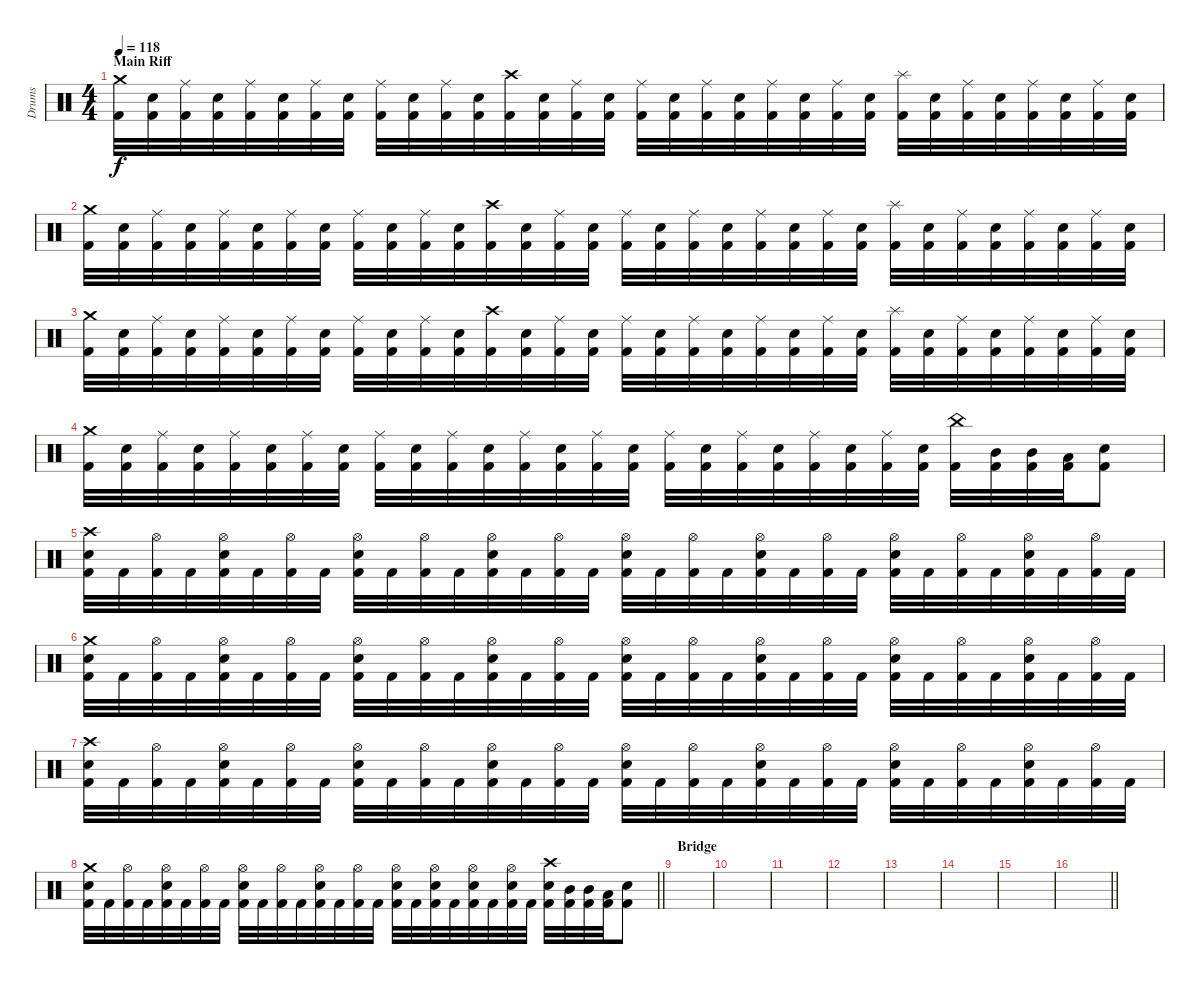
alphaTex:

\track ("Drums" "Drums") {instrument percussion}
\staff {score}
\articulation defaults
\ts (4 4)
\section ("" "Main Riff")
\tempo 118
\clef neutral
\ks c
("Crash medium (hit)" "Kick (hit) 2").32{dy f} ("Electric Snare (hit)" "Kick (hit) 2").32 ("Ride (middle)" "Kick (hit) 2").32 ("Electric Snare (hit)" "Kick (hit) 2").32 ("Ride (middle)" "Kick (hit) 2").32 ("Electric Snare (hit)" "Kick (hit) 2").32 ("Ride (middle)" "Kick (hit) 2").32 ("Electric Snare (hit)" "Kick (hit) 2").32 ("Ride (middle)" "Kick (hit) 2").32 ("Electric Snare (hit)" "Kick (hit) 2").32 ("Ride (middle)" "Kick (hit) 2").32 ("Electric Snare (hit)" "Kick (hit) 2").32 ("Crash high (hit)" "Kick (hit) 2").32 ("Electric Snare (hit)" "Kick (hit) 2").32 ("Ride (middle)" "Kick (hit) 2").32 ("Electric Snare (hit)" "Kick (hit) 2").32 ("Ride (middle)" "Kick (hit) 2").32 ("Electric Snare (hit)" "Kick (hit) 2").32 ("Ride (middle)" "Kick (hit) 2").32 ("Electric Snare (hit)" "Kick (hit) 2").32 ("Ride (middle)" "Kick (hit) 2").32 ("Electric Snare (hit)" "Kick (hit) 2").32 ("Ride (middle)" "Kick (hit) 2").32 ("Electric Snare (hit)" "Kick (hit) 2").32 ("Splash (hit)" "Kick (hit) 2").32 ("Electric Snare (hit)" "Kick (hit) 2").32 ("Ride (middle)" "Kick (hit) 2").32 ("Electric Snare (hit)" "Kick (hit) 2").32 ("Ride (middle)" "Kick (hit) 2").32 ("Electric Snare (hit)" "Kick (hit) 2").32 ("Ride (middle)" "Kick (hit) 2").32 ("Electric Snare (hit)" "Kick (hit) 2").32 |
("Crash medium (hit)" "Kick (hit) 2").32 ("Electric Snare (hit)" "Kick (hit) 2").32 ("Ride (middle)" "Kick (hit) 2").32 ("Electric Snare (hit)" "Kick (hit) 2").32 ("Ride (middle)" "Kick (hit) 2").32 ("Electric Snare (hit)" "Kick (hit) 2").32 ("Ride (middle)" "Kick (hit) 2").32 ("Electric Snare (hit)" "Kick (hit) 2").32 ("Ride (middle)" "Kick (hit) 2").32 ("Electric Snare (hit)" "Kick (hit) 2").32 ("Ride (middle)" "Kick (hit) 2").32 ("Electric Snare (hit)" "Kick (hit) 2").32 ("Crash high (hit)" "Kick (hit) 2").32 ("Electric Snare (hit)" "Kick (hit) 2").32 ("Ride (middle)" "Kick (hit) 2").32 ("Electric Snare (hit)" "Kick (hit) 2").32 ("Ride (middle)" "Kick (hit) 2").32 ("Electric Snare (hit)" "Kick (hit) 2").32 ("Ride (middle)" "Kick (hit) 2").32 ("Electric Snare (hit)" "Kick (hit) 2").32 ("Ride (middle)" "Kick (hit) 2").32 ("Electric Snare (hit)" "Kick (hit) 2").32 ("Ride (middle)" "Kick (hit) 2").32 ("Electric Snare (hit)" "Kick (hit) 2").32 ("Splash (hit)" "Kick (hit) 2").32 ("Electric Snare (hit)" "Kick (hit) 2").32 ("Ride (middle)" "Kick (hit) 2").32 ("Electric Snare (hit)" "Kick (hit) 2").32 ("Ride (middle)" "Kick (hit) 2").32 ("Electric Snare (hit)" "Kick (hit) 2").32 ("Ride (middle)" "Kick (hit) 2").32 ("Electric Snare (hit)" "Kick (hit) 2").32 |
("Crash medium (hit)" "Kick (hit) 2").32 ("Electric Snare (hit)" "Kick (hit) 2").32 ("Ride (middle)" "Kick (hit) 2").32 ("Electric Snare (hit)" "Kick (hit) 2").32 ("Ride (middle)" "Kick (hit) 2").32 ("Electric Snare (hit)" "Kick (hit) 2").32 ("Ride (middle)" "Kick (hit) 2").32 ("Electric Snare (hit)" "Kick (hit) 2").32 ("Ride (middle)" "Kick (hit) 2").32 ("Electric Snare (hit)" "Kick (hit) 2").32 ("Ride (middle)" "Kick (hit) 2").32 ("Electric Snare (hit)" "Kick (hit) 2").32 ("Crash high (hit)" "Kick (hit) 2").32 ("Electric Snare (hit)" "Kick (hit) 2").32 ("Ride (middle)" "Kick (hit) 2").32 ("Electric Snare (hit)" "Kick (hit) 2").32 ("Ride (middle)" "Kick (hit) 2").32 ("Electric Snare (hit)" "Kick (hit) 2").32 ("Ride (middle)" "Kick (hit) 2").32 ("Electric Snare (hit)" "Kick (hit) 2").32 ("Ride (middle)" "Kick (hit) 2").32 ("Electric Snare (hit)" "Kick (hit) 2").32 ("Ride (middle)" "Kick (hit) 2").32 ("Electric Snare (hit)" "Kick (hit) 2").32 ("Splash (hit)" "Kick (hit) 2").32 ("Electric Snare (hit)" "Kick (hit) 2").32 ("Ride (middle)" "Kick (hit) 2").32 ("Electric Snare (hit)" "Kick (hit) 2").32 ("Ride (middle)" "Kick (hit) 2").32 ("Electric Snare (hit)" "Kick (hit) 2").32 ("Ride (middle)" "Kick (hit) 2").32 ("Electric Snare (hit)" "Kick (hit) 2").32 |
("Crash medium (hit)" "Kick (hit) 2").32 ("Electric Snare (hit)" "Kick (hit) 2").32 ("Ride (middle)" "Kick (hit) 2").32 ("Electric Snare (hit)" "Kick (hit) 2").32 ("Ride (middle)" "Kick (hit) 2").32 ("Electric Snare (hit)" "Kick (hit) 2").32 ("Ride (middle)" "Kick (hit) 2").32 ("Electric Snare (hit)" "Kick (hit) 2").32 ("Ride (middle)" "Kick (hit) 2").32 ("Electric Snare (hit)" "Kick (hit) 2").32 ("Ride (middle)" "Kick (hit) 2").32 ("Electric Snare (hit)" "Kick (hit) 2").32 ("Ride (middle)" "Kick (hit) 2").32 ("Electric Snare (hit)" "Kick (hit) 2").32 ("Ride (middle)" "Kick (hit) 2").32 ("Electric Snare (hit)" "Kick (hit) 2").32 ("Ride (middle)" "Kick (hit) 2").32 ("Electric Snare (hit)" "Kick (hit) 2").32 ("Ride (middle)" "Kick (hit) 2").32 ("Electric Snare (hit)" "Kick (hit) 2").32 ("Ride (middle)" "Kick (hit) 2").32 ("Electric Snare (hit)" "Kick (hit) 2").32 ("Ride (middle)" "Kick (hit) 2").32 ("Electric Snare (hit)" "Kick (hit) 2").32 ("China (hit)" "Kick (hit) 2").32 ("Mid Tom (hit)" "Kick (hit) 2").32 ("Mid Tom (hit)" "Kick (hit) 2").32 ("Low Tom (hit)" "Kick (hit) 2").32 ("Electric Snare (hit)" "Kick (hit) 2").8 |
("Crash high (hit)" "Electric Snare (hit)" "Kick (hit) 2").32 "Kick (hit) 2".32 ("Hi-Hat (open)" "Kick (hit) 2").32 "Kick (hit) 2".32 ("Hi-Hat (open)" "Electric Snare (hit)" "Kick (hit) 2").32 "Kick (hit) 2".32 ("Hi-Hat (open)" "Kick (hit) 2").32 "Kick (hit) 2".32 ("Hi-Hat (open)" "Electric Snare (hit)" "Kick (hit) 2").32 "Kick (hit) 2".32 ("Hi-Hat (open)" "Kick (hit) 2").32 "Kick (hit) 2".32 ("Hi-Hat (open)" "Electric Snare (hit)" "Kick (hit) 2").32 "Kick (hit) 2".32 ("Hi-Hat (open)" "Kick (hit) 2").32 "Kick (hit) 2".32 ("Hi-Hat (open)" "Electric Snare (hit)" "Kick (hit) 2").32 "Kick (hit) 2".32 ("Hi-Hat (open)" "Kick (hit) 2").32 "Kick (hit) 2".32 ("Hi-Hat (open)" "Electric Snare (hit)" "Kick (hit) 2").32 "Kick (hit) 2".32 ("Hi-Hat (open)" "Kick (hit) 2").32 "Kick (hit) 2".32 ("Hi-Hat (open)" "Electric Snare (hit)" "Kick (hit) 2").32 "Kick (hit) 2".32 ("Hi-Hat (open)" "Kick (hit) 2").32 "Kick (hit) 2".32 ("Hi-Hat (open)" "Electric Snare (hit)" "Kick (hit) 2").32 "Kick (hit) 2".32 ("Hi-Hat (open)" "Kick (hit) 2").32 "Kick (hit) 2".32 |
("Crash medium (hit)" "Electric Snare (hit)" "Kick (hit) 2").32 "Kick (hit) 2".32 ("Hi-Hat (open)" "Kick (hit) 2").32 "Kick (hit) 2".32 ("Hi-Hat (open)" "Electric Snare (hit)" "Kick (hit) 2").32 "Kick (hit) 2".32 ("Hi-Hat (open)" "Kick (hit) 2").32 "Kick (hit) 2".32 ("Hi-Hat (open)" "Electric Snare (hit)" "Kick (hit) 2").32 "Kick (hit) 2".32 ("Hi-Hat (open)" "Kick (hit) 2").32 "Kick (hit) 2".32 ("Hi-Hat (open)" "Electric Snare (hit)" "Kick (hit) 2").32 "Kick (hit) 2".32 ("Hi-Hat (open)" "Kick (hit) 2").32 "Kick (hit) 2".32 ("Hi-Hat (open)" "Electric Snare (hit)" "Kick (hit) 2").32 "Kick (hit) 2".32 ("Hi-Hat (open)" "Kick (hit) 2").32 "Kick (hit) 2".32 ("Hi-Hat (open)" "Electric Snare (hit)" "Kick (hit) 2").32 "Kick (hit) 2".32 ("Hi-Hat (open)" "Kick (hit) 2").32 "Kick (hit) 2".32 ("Hi-Hat (open)" "Electric Snare (hit)" "Kick (hit) 2").32 "Kick (hit) 2".32 ("Hi-Hat (open)" "Kick (hit) 2").32 "Kick (hit) 2".32 ("Hi-Hat (open)" "Electric Snare (hit)" "Kick (hit) 2").32 "Kick (hit) 2".32 ("Hi-Hat (open)" "Kick (hit) 2").32 "Kick (hit) 2".32 |
("Crash high (hit)" "Electric Snare (hit)" "Kick (hit) 2").32 "Kick (hit) 2".32 ("Hi-Hat (open)" "Kick (hit) 2").32 "Kick (hit) 2".32 ("Hi-Hat (open)" "Electric Snare (hit)" "Kick (hit) 2").32 "Kick (hit) 2".32 ("Hi-Hat (open)" "Kick (hit) 2").32 "Kick (hit) 2".32 ("Hi-Hat (open)" "Electric Snare (hit)" "Kick (hit) 2").32 "Kick (hit) 2".32 ("Hi-Hat (open)" "Kick (hit) 2").32 "Kick (hit) 2".32 ("Hi-Hat (open)" "Electric Snare (hit)" "Kick (hit) 2").32 "Kick (hit) 2".32 ("Hi-Hat (open)" "Kick (hit) 2").32 "Kick (hit) 2".32 ("Hi-Hat (open)" "Electric Snare (hit)" "Kick (hit) 2").32 "Kick (hit) 2".32 ("Hi-Hat (open)" "Kick (hit) 2").32 "Kick (hit) 2".32 ("Hi-Hat (open)" "Electric Snare (hit)" "Kick (hit) 2").32 "Kick (hit) 2".32 ("Hi-Hat (open)" "Kick (hit) 2").32 "Kick (hit) 2".32 ("Hi-Hat (open)" "Electric Snare (hit)" "Kick (hit) 2").32 "Kick (hit) 2".32 ("Hi-Hat (open)" "Kick (hit) 2").32 "Kick (hit) 2".32 ("Hi-Hat (open)" "Electric Snare (hit)" "Kick (hit) 2").32 "Kick (hit) 2".32 ("Hi-Hat (open)" "Kick (hit) 2").32 "Kick (hit) 2".32 |
\barLineRight lightlight
("Crash medium (hit)" "Electric Snare (hit)" "Kick (hit) 2").32 "Kick (hit) 2".32 ("Hi-Hat (open)" "Kick (hit) 2").32 "Kick (hit) 2".32 ("Hi-Hat (open)" "Electric Snare (hit)" "Kick (hit) 2").32 "Kick (hit) 2".32 ("Hi-Hat (open)" "Kick (hit) 2").32 "Kick (hit) 2".32 ("Hi-Hat (open)" "Electric Snare (hit)" "Kick (hit) 2").32 "Kick (hit) 2".32 ("Hi-Hat (open)" "Kick (hit) 2").32 "Kick (hit) 2".32 ("Hi-Hat (open)" "Electric Snare (hit)" "Kick (hit) 2").32 "Kick (hit) 2".32 ("Hi-Hat (open)" "Kick (hit) 2").32 "Kick (hit) 2".32 ("Hi-Hat (open)" "Electric Snare (hit)" "Kick (hit) 2").32 "Kick (hit) 2".32 ("Hi-Hat (open)" "Electric Snare (hit)" "Kick (hit) 2").32 "Kick (hit) 2".32 ("Hi-Hat (open)" "Electric Snare (hit)" "Kick (hit) 2").32 "Kick (hit) 2".32 ("Hi-Hat (open)" "Electric Snare (hit)" "Kick (hit) 2").32 "Kick (hit) 2".32 ("Crash high (hit)" "Electric Snare (hit)" "Kick (hit) 2").32 ("Mid Tom (hit)" "Kick (hit) 2").32 ("Mid Tom (hit)" "Kick (hit) 2").32 ("Low Tom (hit)" "Kick (hit) 2").32 ("Electric Snare (hit)" "Kick (hit) 2").8 |
\section ("" "Bridge")
|
|
|
|
|
|
|
\barLineRight lightlight
